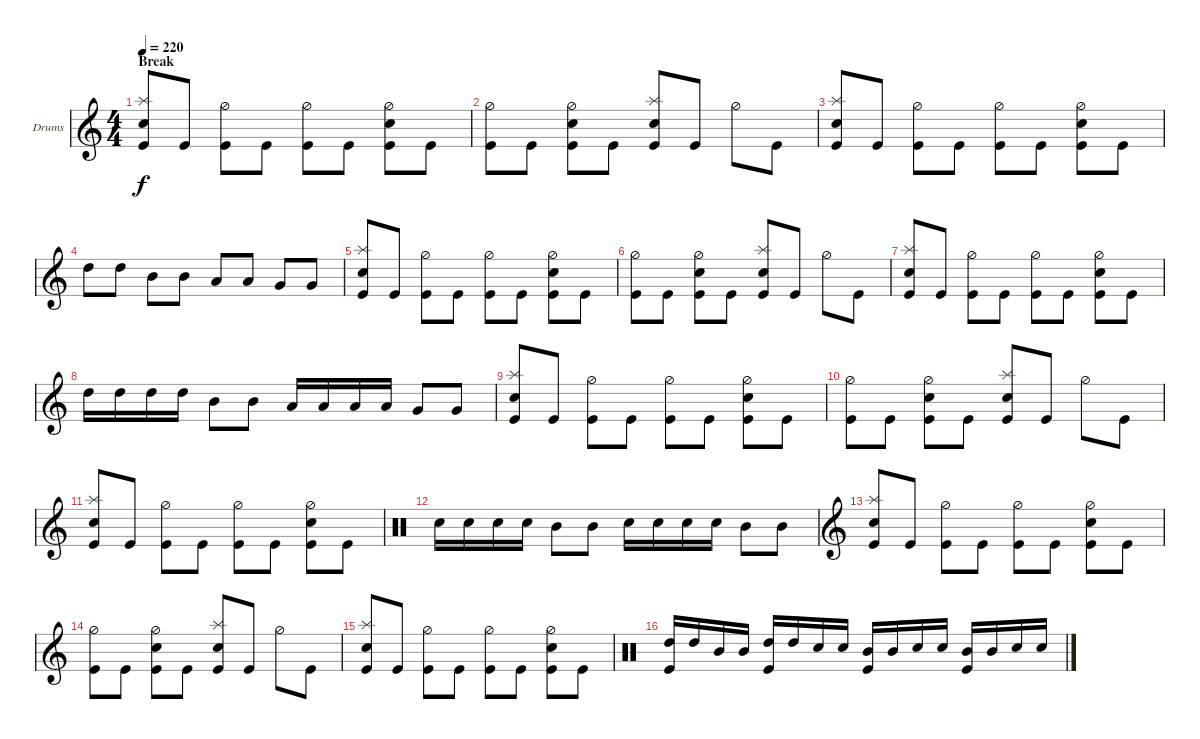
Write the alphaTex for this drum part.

\defaultSystemsLayout 4
\bracketExtendMode groupsimilarinstruments
\firstSystemTrackNameOrientation horizontal
\otherSystemsTrackNameOrientation horizontal
\track ("Drumkit" "Drums") {instrument percussion}
\staff {score}
\articulation defaults
\ts (4 4)
\section ("" "Break")
\tempo 220
\clef g2
\ks c
("Snare (hit) 2" "Splash (hit)" "Kick (hit)").8{dy f} "Kick (hit)".8 ("Hi-Hat (half)" "Kick (hit)").8 "Kick (hit)".8 ("Hi-Hat (half)" "Kick (hit)").8 "Kick (hit)".8 ("Snare (hit) 2" "Hi-Hat (half)" "Kick (hit)").8 "Kick (hit)".8 |
("Hi-Hat (half)" "Kick (hit)").8 "Kick (hit)".8 ("Snare (hit) 2" "Hi-Hat (half)" "Kick (hit)").8 "Kick (hit)".8 ("Snare (hit) 2" "Splash (hit)" "Kick (hit)").8 "Kick (hit)".8 "Hi-Hat (half)".8 "Kick (hit)".8 |
("Snare (hit) 2" "Splash (hit)" "Kick (hit)").8 "Kick (hit)".8 ("Hi-Hat (half)" "Kick (hit)").8 "Kick (hit)".8 ("Hi-Hat (half)" "Kick (hit)").8 "Kick (hit)".8 ("Snare (hit) 2" "Hi-Hat (half)" "Kick (hit)").8 "Kick (hit)".8 |
"High Tom (hit)".8 "High Tom (hit)".8 "Mid Tom (hit)".8 "Mid Tom (hit)".8 "Low Tom (hit)".8 "Low Tom (hit)".8 "Very Low Tom (hit)".8 "Very Low Tom (hit)".8 |
("Snare (hit) 2" "Splash (hit)" "Kick (hit)").8 "Kick (hit)".8 ("Hi-Hat (half)" "Kick (hit)").8 "Kick (hit)".8 ("Hi-Hat (half)" "Kick (hit)").8 "Kick (hit)".8 ("Snare (hit) 2" "Hi-Hat (half)" "Kick (hit)").8 "Kick (hit)".8 |
("Hi-Hat (half)" "Kick (hit)").8 "Kick (hit)".8 ("Snare (hit) 2" "Hi-Hat (half)" "Kick (hit)").8 "Kick (hit)".8 ("Snare (hit) 2" "Splash (hit)" "Kick (hit)").8 "Kick (hit)".8 "Hi-Hat (half)".8 "Kick (hit)".8 |
("Snare (hit) 2" "Splash (hit)" "Kick (hit)").8 "Kick (hit)".8 ("Hi-Hat (half)" "Kick (hit)").8 "Kick (hit)".8 ("Hi-Hat (half)" "Kick (hit)").8 "Kick (hit)".8 ("Snare (hit) 2" "Hi-Hat (half)" "Kick (hit)").8 "Kick (hit)".8 |
"High Tom (hit)".16 "High Tom (hit)".16 "High Tom (hit)".16 "High Tom (hit)".16 "Mid Tom (hit)".8 "Mid Tom (hit)".8 "Low Tom (hit)".16 "Low Tom (hit)".16 "Low Tom (hit)".16 "Low Tom (hit)".16 "Very Low Tom (hit)".8 "Very Low Tom (hit)".8 |
("Snare (hit) 2" "Splash (hit)" "Kick (hit)").8 "Kick (hit)".8 ("Hi-Hat (half)" "Kick (hit)").8 "Kick (hit)".8 ("Hi-Hat (half)" "Kick (hit)").8 "Kick (hit)".8 ("Snare (hit) 2" "Hi-Hat (half)" "Kick (hit)").8 "Kick (hit)".8 |
("Hi-Hat (half)" "Kick (hit)").8 "Kick (hit)".8 ("Snare (hit) 2" "Hi-Hat (half)" "Kick (hit)").8 "Kick (hit)".8 ("Snare (hit) 2" "Splash (hit)" "Kick (hit)").8 "Kick (hit)".8 "Hi-Hat (half)".8 "Kick (hit)".8 |
("Snare (hit) 2" "Splash (hit)" "Kick (hit)").8 "Kick (hit)".8 ("Hi-Hat (half)" "Kick (hit)").8 "Kick (hit)".8 ("Hi-Hat (half)" "Kick (hit)").8 "Kick (hit)".8 ("Snare (hit) 2" "Hi-Hat (half)" "Kick (hit)").8 "Kick (hit)".8 |
\clef neutral "Snare (hit) 2".16 "Snare (hit) 2".16 "Snare (hit) 2".16 "Snare (hit) 2".16 "Mid Tom (hit)".8 "Mid Tom (hit)".8 "Snare (hit) 2".16 "Snare (hit) 2".16 "Snare (hit) 2".16 "Snare (hit) 2".16 "Mid Tom (hit)".8 "Mid Tom (hit)".8
|
\clef g2
("Snare (hit) 2" "Splash (hit)" "Kick (hit)").8 "Kick (hit)".8 ("Hi-Hat (half)" "Kick (hit)").8 "Kick (hit)".8 ("Hi-Hat (half)" "Kick (hit)").8 "Kick (hit)".8 ("Snare (hit) 2" "Hi-Hat (half)" "Kick (hit)").8 "Kick (hit)".8 |
("Hi-Hat (half)" "Kick (hit)").8 "Kick (hit)".8 ("Snare (hit) 2" "Hi-Hat (half)" "Kick (hit)").8 "Kick (hit)".8 ("Snare (hit) 2" "Splash (hit)" "Kick (hit)").8 "Kick (hit)".8 "Hi-Hat (half)".8 "Kick (hit)".8 |
("Snare (hit) 2" "Splash (hit)" "Kick (hit)").8 "Kick (hit)".8 ("Hi-Hat (half)" "Kick (hit)").8 "Kick (hit)".8 ("Hi-Hat (half)" "Kick (hit)").8 "Kick (hit)".8 ("Snare (hit) 2" "Hi-Hat (half)" "Kick (hit)").8 "Kick (hit)".8 |
\clef neutral
("High Tom (hit)" "Kick (hit)").16 "High Tom (hit)".16 "Mid Tom (hit)".16 "Mid Tom (hit)".16 ("High Tom (hit)" "Kick (hit)").16 "High Tom (hit)".16 "Snare (hit) 2".16 "Snare (hit) 2".16 ("Mid Tom (hit)" "Kick (hit)").16 "Mid Tom (hit)".16 "Snare (hit) 2".16 "Snare (hit) 2".16 ("Mid Tom (hit)" "Kick (hit)").16 "Mid Tom (hit)".16 "Snare (hit) 2".16 "Snare (hit) 2".16
